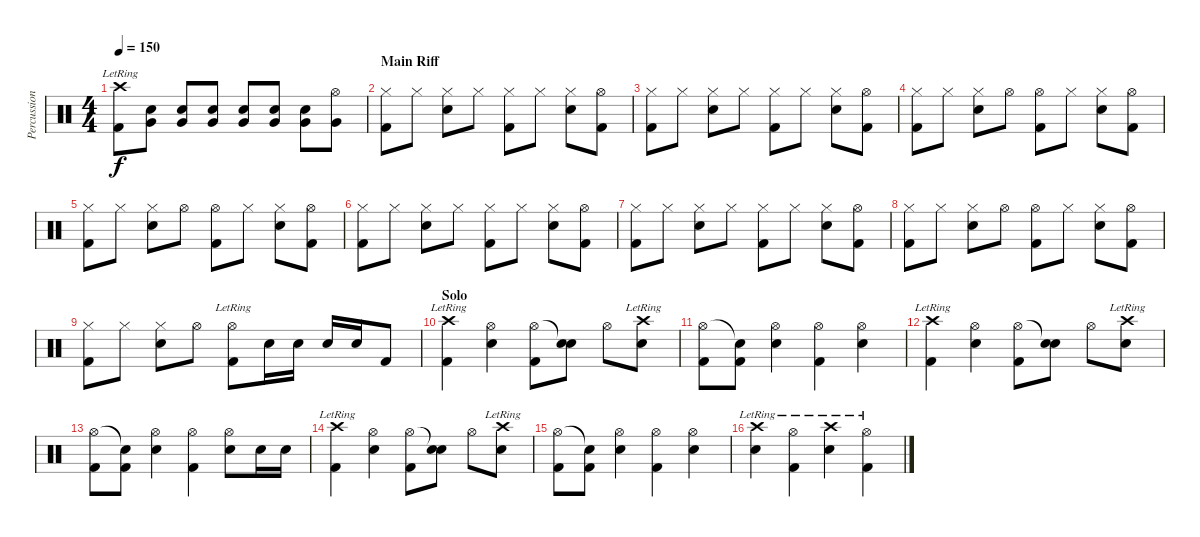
\track ("Percussion" "Percussion") {instrument percussion}
\staff {score}
\articulation defaults
\ts (4 4)
\tempo 150
\clef neutral
\ks c
("Crash high (hit)"{lr} "Kick (hit) 2").8{dy f} ("Very Low Tom (hit)" "Snare (hit) 2").8 ("Very Low Tom (hit)" "Snare (hit) 2").8 ("Very Low Tom (hit)" "Snare (hit) 2").8 ("Very Low Tom (hit)" "Snare (hit) 2").8 ("Very Low Tom (hit)" "Snare (hit) 2").8 ("Very Low Tom (hit)" "Snare (hit) 2").8 ("Hi-Hat (open)" "Very Low Tom (hit)").8 |
\section ("" "Main Riff")
("Hi-Hat (closed)" "Kick (hit) 2").8 "Hi-Hat (closed)".8 ("Hi-Hat (closed)" "Snare (hit) 2").8 "Hi-Hat (closed)".8 ("Hi-Hat (closed)" "Kick (hit) 2").8 "Hi-Hat (closed)".8 ("Hi-Hat (closed)" "Snare (hit) 2").8 ("Hi-Hat (open)" "Kick (hit) 2").8 |
("Hi-Hat (closed)" "Kick (hit) 2").8 "Hi-Hat (closed)".8 ("Hi-Hat (closed)" "Snare (hit) 2").8 "Hi-Hat (closed)".8 ("Hi-Hat (closed)" "Kick (hit) 2").8 "Hi-Hat (closed)".8 ("Hi-Hat (closed)" "Snare (hit) 2").8 ("Hi-Hat (open)" "Kick (hit) 2").8 |
("Hi-Hat (closed)" "Kick (hit) 2").8 "Hi-Hat (closed)".8 ("Hi-Hat (closed)" "Snare (hit) 2").8 "Hi-Hat (open)".8 ("Hi-Hat (open)" "Kick (hit) 2").8 "Hi-Hat (closed)".8 ("Hi-Hat (closed)" "Snare (hit) 2").8 ("Hi-Hat (open)" "Kick (hit) 2").8 |
("Hi-Hat (closed)" "Kick (hit) 2").8 "Hi-Hat (closed)".8 ("Hi-Hat (closed)" "Snare (hit) 2").8 "Hi-Hat (open)".8 ("Hi-Hat (open)" "Kick (hit) 2").8 "Hi-Hat (closed)".8 ("Hi-Hat (closed)" "Snare (hit) 2").8 ("Hi-Hat (open)" "Kick (hit) 2").8 |
("Hi-Hat (closed)" "Kick (hit) 2").8 "Hi-Hat (closed)".8 ("Hi-Hat (closed)" "Snare (hit) 2").8 "Hi-Hat (closed)".8 ("Hi-Hat (closed)" "Kick (hit) 2").8 "Hi-Hat (closed)".8 ("Hi-Hat (closed)" "Snare (hit) 2").8 ("Hi-Hat (open)" "Kick (hit) 2").8 |
("Hi-Hat (closed)" "Kick (hit) 2").8 "Hi-Hat (closed)".8 ("Hi-Hat (closed)" "Snare (hit) 2").8 "Hi-Hat (closed)".8 ("Hi-Hat (closed)" "Kick (hit) 2").8 "Hi-Hat (closed)".8 ("Hi-Hat (closed)" "Snare (hit) 2").8 ("Hi-Hat (open)" "Kick (hit) 2").8 |
("Hi-Hat (closed)" "Kick (hit) 2").8 "Hi-Hat (closed)".8 ("Hi-Hat (closed)" "Snare (hit) 2").8 "Hi-Hat (open)".8 ("Hi-Hat (open)" "Kick (hit) 2").8 "Hi-Hat (closed)".8 ("Hi-Hat (closed)" "Snare (hit) 2").8 ("Hi-Hat (open)" "Kick (hit) 2").8 |
("Hi-Hat (closed)" "Kick (hit) 2").8 "Hi-Hat (closed)".8 ("Hi-Hat (closed)" "Snare (hit) 2").8 "Hi-Hat (open)".8 ("Hi-Hat (open)"{lr} "Kick (hit) 2").8 "Snare (hit) 2".16 "Snare (hit) 2".16 "Snare (hit) 2".16 "Snare (hit) 2".16 "Kick (hit) 2".8 |
\section ("" "Solo")
("Crash high (hit)"{lr} "Kick (hit) 2").4 ("Hi-Hat (open)" "Snare (hit) 2").4 ("Hi-Hat (open)" "Kick (hit) 2").8 ("Snare (hit)"{t} "Snare (hit) 2").8 "Hi-Hat (open)".8 ("Crash high (hit)"{lr} "Snare (hit) 2").8 |
("Hi-Hat (open)" "Kick (hit) 2").8 ("Snare (hit)"{t} "Kick (hit) 2").8 ("Hi-Hat (open)" "Snare (hit) 2").4 ("Hi-Hat (open)" "Kick (hit) 2").4 ("Hi-Hat (open)" "Snare (hit) 2").4 |
("Crash high (hit)"{lr} "Kick (hit) 2").4 ("Hi-Hat (open)" "Snare (hit) 2").4 ("Hi-Hat (open)" "Kick (hit) 2").8 ("Snare (hit)"{t} "Snare (hit) 2").8 "Hi-Hat (open)".8 ("Crash high (hit)"{lr} "Snare (hit) 2").8 |
("Hi-Hat (open)" "Kick (hit) 2").8 ("Snare (hit)"{t} "Kick (hit) 2").8 ("Hi-Hat (open)" "Snare (hit) 2").4 ("Hi-Hat (open)" "Kick (hit) 2").4 ("Hi-Hat (open)" "Snare (hit) 2").8 "Snare (hit) 2".16 "Snare (hit) 2".16 |
("Crash high (hit)"{lr} "Kick (hit) 2").4 ("Hi-Hat (open)" "Snare (hit) 2").4 ("Hi-Hat (open)" "Kick (hit) 2").8 ("Snare (hit)"{t} "Snare (hit) 2").8 "Hi-Hat (open)".8 ("Crash high (hit)"{lr} "Snare (hit) 2").8 |
("Hi-Hat (open)" "Kick (hit) 2").8 ("Snare (hit)"{t} "Kick (hit) 2").8 ("Hi-Hat (open)" "Snare (hit) 2").4 ("Hi-Hat (open)" "Kick (hit) 2").4 ("Hi-Hat (open)" "Snare (hit) 2").4 |
("Crash high (hit)"{lr} "Snare (hit) 2").4 ("Hi-Hat (open)"{lr} "Kick (hit) 2").4 ("Crash high (hit)"{lr} "Snare (hit) 2").4 ("Hi-Hat (open)"{lr} "Kick (hit) 2").4
